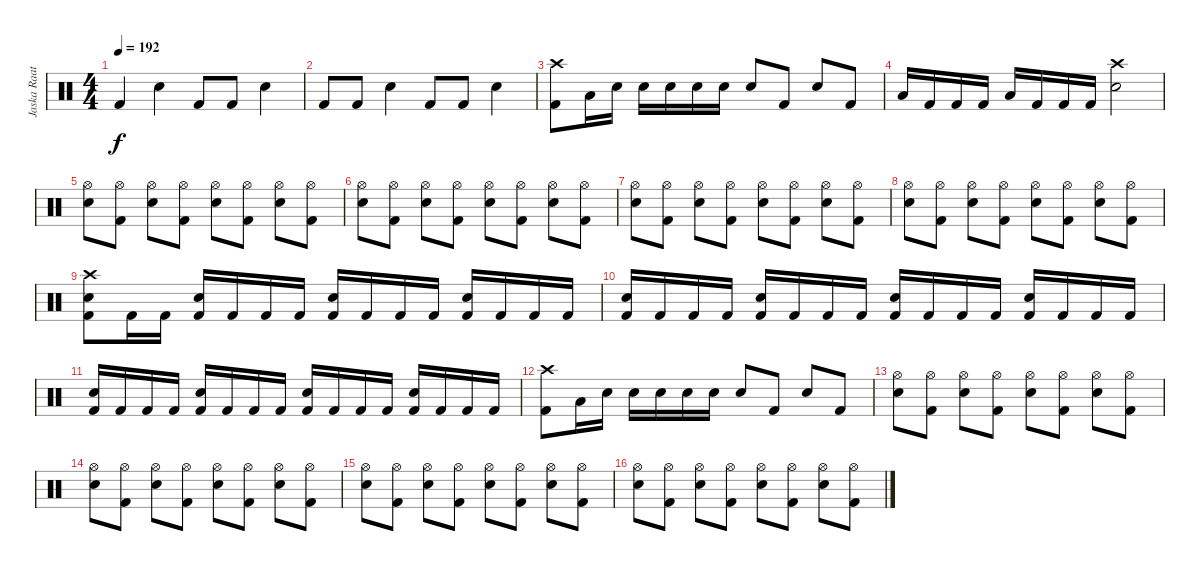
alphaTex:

\track ("Jaska Raatikainen" "Jaska Raat") {instrument percussion}
\staff {score}
\articulation defaults
\ts (4 4)
\tempo 192
\clef neutral
\ks c "Kick (hit) 2".4{dy f} "Snare (hit) 2".4 "Kick (hit) 2".8 "Kick (hit) 2".8 "Snare (hit) 2".4
|
"Kick (hit) 2".8 "Kick (hit) 2".8 "Snare (hit) 2".4 "Kick (hit) 2".8 "Kick (hit) 2".8 "Snare (hit) 2".4 |
("Crash high (hit)" "Kick (hit) 2").8 "Low Floor Tom (hit)".16 "Snare (hit) 2".16 "Snare (hit) 2".16 "Snare (hit) 2".16 "Snare (hit) 2".16 "Snare (hit) 2".16 "Snare (hit) 2".8 "Kick (hit) 2".8 "Snare (hit) 2".8 "Kick (hit) 2".8 |
"Low Floor Tom (hit)".16 "Kick (hit) 2".16 "Kick (hit) 2".16 "Kick (hit) 2".16 "Low Floor Tom (hit)".16 "Kick (hit) 2".16 "Kick (hit) 2".16 "Kick (hit) 2".16 ("Crash high (hit)" "Snare (hit) 2").2 |
("Hi-Hat (open)" "Snare (hit) 2").8 ("Hi-Hat (open)" "Kick (hit) 2").8 ("Hi-Hat (open)" "Snare (hit) 2").8 ("Hi-Hat (open)" "Kick (hit) 2").8 ("Hi-Hat (open)" "Snare (hit) 2").8 ("Hi-Hat (open)" "Kick (hit) 2").8 ("Hi-Hat (open)" "Snare (hit) 2").8 ("Hi-Hat (open)" "Kick (hit) 2").8 |
("Hi-Hat (open)" "Snare (hit) 2").8 ("Hi-Hat (open)" "Kick (hit) 2").8 ("Hi-Hat (open)" "Snare (hit) 2").8 ("Hi-Hat (open)" "Kick (hit) 2").8 ("Hi-Hat (open)" "Snare (hit) 2").8 ("Hi-Hat (open)" "Kick (hit) 2").8 ("Hi-Hat (open)" "Snare (hit) 2").8 ("Hi-Hat (open)" "Kick (hit) 2").8 |
("Hi-Hat (open)" "Snare (hit) 2").8 ("Hi-Hat (open)" "Kick (hit) 2").8 ("Hi-Hat (open)" "Snare (hit) 2").8 ("Hi-Hat (open)" "Kick (hit) 2").8 ("Hi-Hat (open)" "Snare (hit) 2").8 ("Hi-Hat (open)" "Kick (hit) 2").8 ("Hi-Hat (open)" "Snare (hit) 2").8 ("Hi-Hat (open)" "Kick (hit) 2").8 |
("Hi-Hat (open)" "Snare (hit) 2").8 ("Hi-Hat (open)" "Kick (hit) 2").8 ("Hi-Hat (open)" "Snare (hit) 2").8 ("Hi-Hat (open)" "Kick (hit) 2").8 ("Hi-Hat (open)" "Snare (hit) 2").8 ("Hi-Hat (open)" "Kick (hit) 2").8 ("Hi-Hat (open)" "Snare (hit) 2").8 ("Hi-Hat (open)" "Kick (hit) 2").8 |
("Crash high (hit)" "Snare (hit) 2" "Kick (hit) 2").8 "Kick (hit) 2".16 "Kick (hit) 2".16 ("Snare (hit) 2" "Kick (hit) 2").16 "Kick (hit) 2".16 "Kick (hit) 2".16 "Kick (hit) 2".16 ("Snare (hit) 2" "Kick (hit) 2").16 "Kick (hit) 2".16 "Kick (hit) 2".16 "Kick (hit) 2".16 ("Snare (hit) 2" "Kick (hit) 2").16 "Kick (hit) 2".16 "Kick (hit) 2".16 "Kick (hit) 2".16 |
("Snare (hit) 2" "Kick (hit) 2").16 "Kick (hit) 2".16 "Kick (hit) 2".16 "Kick (hit) 2".16 ("Snare (hit) 2" "Kick (hit) 2").16 "Kick (hit) 2".16 "Kick (hit) 2".16 "Kick (hit) 2".16 ("Snare (hit) 2" "Kick (hit) 2").16 "Kick (hit) 2".16 "Kick (hit) 2".16 "Kick (hit) 2".16 ("Snare (hit) 2" "Kick (hit) 2").16 "Kick (hit) 2".16 "Kick (hit) 2".16 "Kick (hit) 2".16 |
("Snare (hit) 2" "Kick (hit) 2").16 "Kick (hit) 2".16 "Kick (hit) 2".16 "Kick (hit) 2".16 ("Snare (hit) 2" "Kick (hit) 2").16 "Kick (hit) 2".16 "Kick (hit) 2".16 "Kick (hit) 2".16 ("Snare (hit) 2" "Kick (hit) 2").16 "Kick (hit) 2".16 "Kick (hit) 2".16 "Kick (hit) 2".16 ("Snare (hit) 2" "Kick (hit) 2").16 "Kick (hit) 2".16 "Kick (hit) 2".16 "Kick (hit) 2".16 |
("Crash high (hit)" "Kick (hit) 2").8 "Low Floor Tom (hit)".16 "Snare (hit) 2".16 "Snare (hit) 2".16 "Snare (hit) 2".16 "Snare (hit) 2".16 "Snare (hit) 2".16 "Snare (hit) 2".8 "Kick (hit) 2".8 "Snare (hit) 2".8 "Kick (hit) 2".8 |
("Hi-Hat (open)" "Snare (hit) 2").8 ("Hi-Hat (open)" "Kick (hit) 2").8 ("Hi-Hat (open)" "Snare (hit) 2").8 ("Hi-Hat (open)" "Kick (hit) 2").8 ("Hi-Hat (open)" "Snare (hit) 2").8 ("Hi-Hat (open)" "Kick (hit) 2").8 ("Hi-Hat (open)" "Snare (hit) 2").8 ("Hi-Hat (open)" "Kick (hit) 2").8 |
("Hi-Hat (open)" "Snare (hit) 2").8 ("Hi-Hat (open)" "Kick (hit) 2").8 ("Hi-Hat (open)" "Snare (hit) 2").8 ("Hi-Hat (open)" "Kick (hit) 2").8 ("Hi-Hat (open)" "Snare (hit) 2").8 ("Hi-Hat (open)" "Kick (hit) 2").8 ("Hi-Hat (open)" "Snare (hit) 2").8 ("Hi-Hat (open)" "Kick (hit) 2").8 |
("Hi-Hat (open)" "Snare (hit) 2").8 ("Hi-Hat (open)" "Kick (hit) 2").8 ("Hi-Hat (open)" "Snare (hit) 2").8 ("Hi-Hat (open)" "Kick (hit) 2").8 ("Hi-Hat (open)" "Snare (hit) 2").8 ("Hi-Hat (open)" "Kick (hit) 2").8 ("Hi-Hat (open)" "Snare (hit) 2").8 ("Hi-Hat (open)" "Kick (hit) 2").8 |
("Hi-Hat (open)" "Snare (hit) 2").8 ("Hi-Hat (open)" "Kick (hit) 2").8 ("Hi-Hat (open)" "Snare (hit) 2").8 ("Hi-Hat (open)" "Kick (hit) 2").8 ("Hi-Hat (open)" "Snare (hit) 2").8 ("Hi-Hat (open)" "Kick (hit) 2").8 ("Hi-Hat (open)" "Snare (hit) 2").8 ("Hi-Hat (open)" "Kick (hit) 2").8
